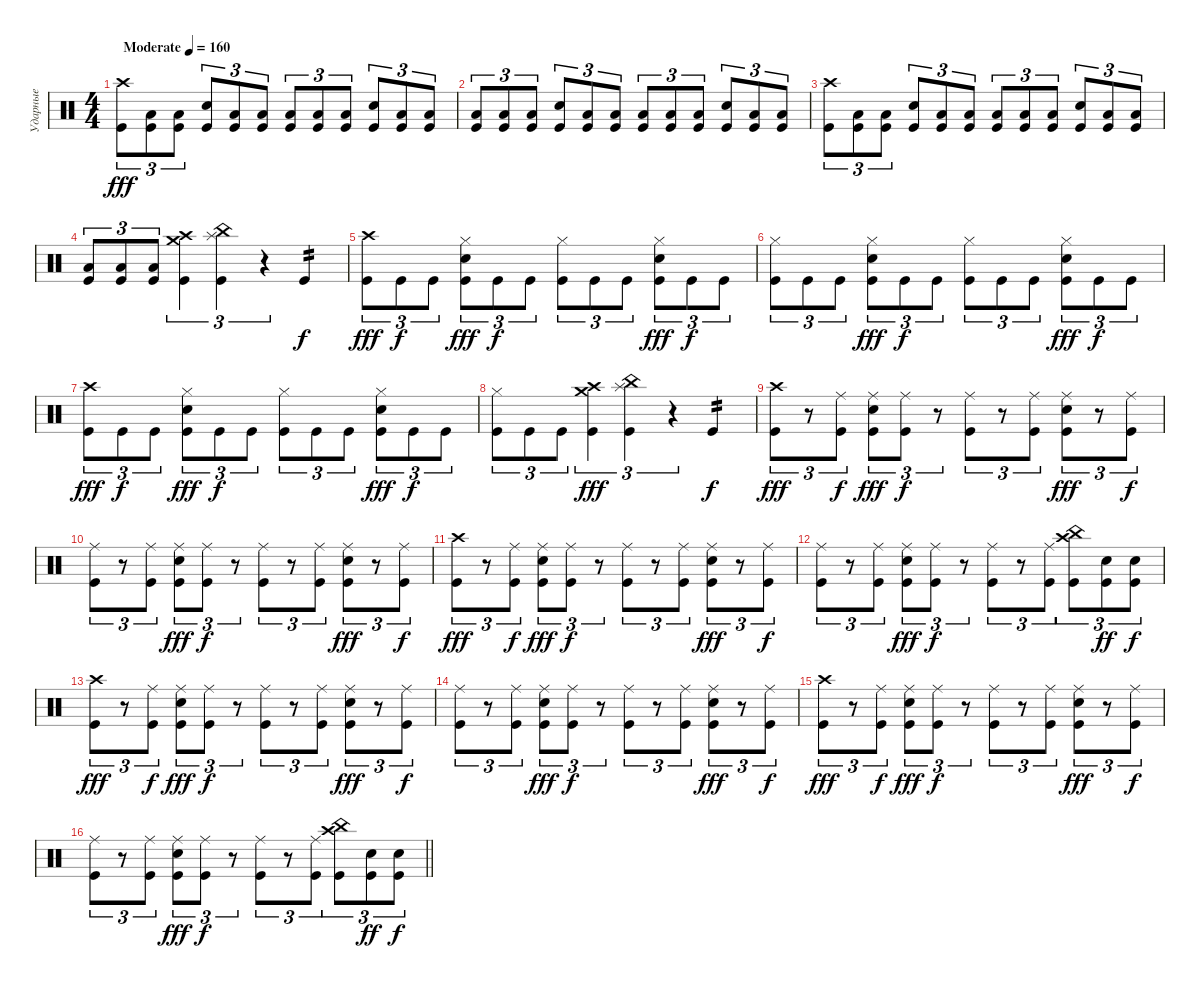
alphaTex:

\track ("Ударные" "Ударные") {instrument percussion}
\staff {score}
\articulation defaults
\ts (4 4)
\tempo (160 "Moderate")
\clef neutral
\ks c
("Kick (hit)" "Crash high (hit)").8{tu (3 2) dy fff} ("Kick (hit)" "Low Tom (hit)").8{tu (3 2)} ("Kick (hit)" "Low Tom (hit)").8{tu (3 2)} ("Kick (hit)" "Snare (hit) 2").8{tu (3 2)} ("Kick (hit)" "Low Tom (hit)").8{tu (3 2)} ("Kick (hit)" "Low Tom (hit)").8{tu (3 2)} ("Kick (hit)" "Low Tom (hit)").8{tu (3 2)} ("Kick (hit)" "Low Tom (hit)").8{tu (3 2)} ("Kick (hit)" "Low Tom (hit)").8{tu (3 2)} ("Kick (hit)" "Snare (hit) 2").8{tu (3 2)} ("Kick (hit)" "Low Tom (hit)").8{tu (3 2)} ("Kick (hit)" "Low Tom (hit)").8{tu (3 2)} |
("Kick (hit)" "Low Tom (hit)").8{tu (3 2)} ("Kick (hit)" "Low Tom (hit)").8{tu (3 2)} ("Kick (hit)" "Low Tom (hit)").8{tu (3 2)} ("Kick (hit)" "Snare (hit) 2").8{tu (3 2)} ("Kick (hit)" "Low Tom (hit)").8{tu (3 2)} ("Kick (hit)" "Low Tom (hit)").8{tu (3 2)} ("Kick (hit)" "Low Tom (hit)").8{tu (3 2)} ("Kick (hit)" "Low Tom (hit)").8{tu (3 2)} ("Kick (hit)" "Low Tom (hit)").8{tu (3 2)} ("Kick (hit)" "Snare (hit) 2").8{tu (3 2)} ("Kick (hit)" "Low Tom (hit)").8{tu (3 2)} ("Kick (hit)" "Low Tom (hit)").8{tu (3 2)} |
("Kick (hit)" "Crash high (hit)").8{tu (3 2)} ("Kick (hit)" "Low Tom (hit)").8{tu (3 2)} ("Kick (hit)" "Low Tom (hit)").8{tu (3 2)} ("Kick (hit)" "Snare (hit) 2").8{tu (3 2)} ("Kick (hit)" "Low Tom (hit)").8{tu (3 2)} ("Kick (hit)" "Low Tom (hit)").8{tu (3 2)} ("Kick (hit)" "Low Tom (hit)").8{tu (3 2)} ("Kick (hit)" "Low Tom (hit)").8{tu (3 2)} ("Kick (hit)" "Low Tom (hit)").8{tu (3 2)} ("Kick (hit)" "Snare (hit) 2").8{tu (3 2)} ("Kick (hit)" "Low Tom (hit)").8{tu (3 2)} ("Kick (hit)" "Low Tom (hit)").8{tu (3 2)} |
("Kick (hit)" "Low Tom (hit)").8{tu (3 2)} ("Kick (hit)" "Low Tom (hit)").8{tu (3 2)} ("Kick (hit)" "Low Tom (hit)").8{tu (3 2)} ("Kick (hit)" "Crash high (hit)" "Crash medium (hit)").4{tu (3 2)} ("Kick (hit)" "Splash (hit)" "China (hit)").4{tu (3 2)} r.4{tu (3 2)} "Kick (hit)".4{tp 2 dy f} |
("Kick (hit)" "Crash high (hit)").8{tu (3 2) dy fff} "Kick (hit)".8{tu (3 2) dy f} "Kick (hit)".8{tu (3 2)} ("Kick (hit)" "Snare (hit) 2" "Hi-Hat (closed)").8{tu (3 2) dy fff} "Kick (hit)".8{tu (3 2) dy f} "Kick (hit)".8{tu (3 2)} ("Kick (hit)" "Hi-Hat (closed)").8{tu (3 2)} "Kick (hit)".8{tu (3 2)} "Kick (hit)".8{tu (3 2)} ("Kick (hit)" "Snare (hit) 2" "Hi-Hat (closed)").8{tu (3 2) dy fff} "Kick (hit)".8{tu (3 2) dy f} "Kick (hit)".8{tu (3 2)} |
("Kick (hit)" "Hi-Hat (closed)").8{tu (3 2)} "Kick (hit)".8{tu (3 2)} "Kick (hit)".8{tu (3 2)} ("Kick (hit)" "Snare (hit) 2" "Hi-Hat (closed)").8{tu (3 2) dy fff} "Kick (hit)".8{tu (3 2) dy f} "Kick (hit)".8{tu (3 2)} ("Kick (hit)" "Hi-Hat (closed)").8{tu (3 2)} "Kick (hit)".8{tu (3 2)} "Kick (hit)".8{tu (3 2)} ("Kick (hit)" "Snare (hit) 2" "Hi-Hat (closed)").8{tu (3 2) dy fff} "Kick (hit)".8{tu (3 2) dy f} "Kick (hit)".8{tu (3 2)} |
("Kick (hit)" "Crash high (hit)").8{tu (3 2) dy fff} "Kick (hit)".8{tu (3 2) dy f} "Kick (hit)".8{tu (3 2)} ("Kick (hit)" "Snare (hit) 2" "Hi-Hat (closed)").8{tu (3 2) dy fff} "Kick (hit)".8{tu (3 2) dy f} "Kick (hit)".8{tu (3 2)} ("Kick (hit)" "Hi-Hat (closed)").8{tu (3 2)} "Kick (hit)".8{tu (3 2)} "Kick (hit)".8{tu (3 2)} ("Kick (hit)" "Snare (hit) 2" "Hi-Hat (closed)").8{tu (3 2) dy fff} "Kick (hit)".8{tu (3 2) dy f} "Kick (hit)".8{tu (3 2)} |
("Kick (hit)" "Hi-Hat (closed)").8{tu (3 2)} "Kick (hit)".8{tu (3 2)} "Kick (hit)".8{tu (3 2)} ("Kick (hit)" "Crash high (hit)" "Crash medium (hit)").4{tu (3 2) dy fff} ("Kick (hit)" "Splash (hit)" "China (hit)").4{tu (3 2)} r.4{tu (3 2)} "Kick (hit)".4{tp 2 dy f} |
("Kick (hit)" "Crash high (hit)").8{tu (3 2) dy fff} r.8{tu (3 2)} ("Kick (hit)" "Ride (middle)").8{tu (3 2) dy f} ("Kick (hit)" "Snare (hit) 2" "Ride (middle)").8{tu (3 2) dy fff} ("Kick (hit)" "Ride (middle)").8{tu (3 2) dy f} r.8{tu (3 2)} ("Kick (hit)" "Ride (middle)").8{tu (3 2)} r.8{tu (3 2)} ("Kick (hit)" "Ride (middle)").8{tu (3 2)} ("Kick (hit)" "Snare (hit) 2" "Ride (middle)").8{tu (3 2) dy fff} r.8{tu (3 2)} ("Kick (hit)" "Ride (middle)").8{tu (3 2) dy f} |
("Kick (hit)" "Ride (middle)").8{tu (3 2)} r.8{tu (3 2)} ("Kick (hit)" "Ride (middle)").8{tu (3 2)} ("Kick (hit)" "Snare (hit) 2" "Ride (middle)").8{tu (3 2) dy fff} ("Kick (hit)" "Ride (middle)").8{tu (3 2) dy f} r.8{tu (3 2)} ("Kick (hit)" "Ride (middle)").8{tu (3 2)} r.8{tu (3 2)} ("Kick (hit)" "Ride (middle)").8{tu (3 2)} ("Kick (hit)" "Snare (hit) 2" "Ride (middle)").8{tu (3 2) dy fff} r.8{tu (3 2)} ("Kick (hit)" "Ride (middle)").8{tu (3 2) dy f} |
("Kick (hit)" "Crash high (hit)").8{tu (3 2) dy fff} r.8{tu (3 2)} ("Kick (hit)" "Ride (middle)").8{tu (3 2) dy f} ("Kick (hit)" "Snare (hit) 2" "Ride (middle)").8{tu (3 2) dy fff} ("Kick (hit)" "Ride (middle)").8{tu (3 2) dy f} r.8{tu (3 2)} ("Kick (hit)" "Ride (middle)").8{tu (3 2)} r.8{tu (3 2)} ("Kick (hit)" "Ride (middle)").8{tu (3 2)} ("Kick (hit)" "Snare (hit) 2" "Ride (middle)").8{tu (3 2) dy fff} r.8{tu (3 2)} ("Kick (hit)" "Ride (middle)").8{tu (3 2) dy f} |
("Kick (hit)" "Ride (middle)").8{tu (3 2)} r.8{tu (3 2)} ("Kick (hit)" "Ride (middle)").8{tu (3 2)} ("Kick (hit)" "Snare (hit) 2" "Ride (middle)").8{tu (3 2) dy fff} ("Kick (hit)" "Ride (middle)").8{tu (3 2) dy f} r.8{tu (3 2)} ("Kick (hit)" "Ride (middle)").8{tu (3 2)} r.8{tu (3 2)} ("Kick (hit)" "Ride (middle)").8{tu (3 2)} ("Kick (hit)" "Crash high (hit)" "China (hit)").8{tu (3 2)} ("Kick (hit)" "Snare (hit) 2").8{tu (3 2) dy ff} ("Snare (hit) 2" "Kick (hit)").8{tu (3 2) dy f} |
("Kick (hit)" "Crash high (hit)").8{tu (3 2) dy fff} r.8{tu (3 2)} ("Kick (hit)" "Ride (middle)").8{tu (3 2) dy f} ("Kick (hit)" "Snare (hit) 2" "Ride (middle)").8{tu (3 2) dy fff} ("Kick (hit)" "Ride (middle)").8{tu (3 2) dy f} r.8{tu (3 2)} ("Kick (hit)" "Ride (middle)").8{tu (3 2)} r.8{tu (3 2)} ("Kick (hit)" "Ride (middle)").8{tu (3 2)} ("Kick (hit)" "Snare (hit) 2" "Ride (middle)").8{tu (3 2) dy fff} r.8{tu (3 2)} ("Kick (hit)" "Ride (middle)").8{tu (3 2) dy f} |
("Kick (hit)" "Ride (middle)").8{tu (3 2)} r.8{tu (3 2)} ("Kick (hit)" "Ride (middle)").8{tu (3 2)} ("Kick (hit)" "Snare (hit) 2" "Ride (middle)").8{tu (3 2) dy fff} ("Kick (hit)" "Ride (middle)").8{tu (3 2) dy f} r.8{tu (3 2)} ("Kick (hit)" "Ride (middle)").8{tu (3 2)} r.8{tu (3 2)} ("Kick (hit)" "Ride (middle)").8{tu (3 2)} ("Kick (hit)" "Snare (hit) 2" "Ride (middle)").8{tu (3 2) dy fff} r.8{tu (3 2)} ("Kick (hit)" "Ride (middle)").8{tu (3 2) dy f} |
("Kick (hit)" "Crash high (hit)").8{tu (3 2) dy fff} r.8{tu (3 2)} ("Kick (hit)" "Ride (middle)").8{tu (3 2) dy f} ("Kick (hit)" "Snare (hit) 2" "Ride (middle)").8{tu (3 2) dy fff} ("Kick (hit)" "Ride (middle)").8{tu (3 2) dy f} r.8{tu (3 2)} ("Kick (hit)" "Ride (middle)").8{tu (3 2)} r.8{tu (3 2)} ("Kick (hit)" "Ride (middle)").8{tu (3 2)} ("Kick (hit)" "Snare (hit) 2" "Ride (middle)").8{tu (3 2) dy fff} r.8{tu (3 2)} ("Kick (hit)" "Ride (middle)").8{tu (3 2) dy f} |
\barLineRight lightlight
("Kick (hit)" "Ride (middle)").8{tu (3 2)} r.8{tu (3 2)} ("Kick (hit)" "Ride (middle)").8{tu (3 2)} ("Kick (hit)" "Snare (hit) 2" "Ride (middle)").8{tu (3 2) dy fff} ("Kick (hit)" "Ride (middle)").8{tu (3 2) dy f} r.8{tu (3 2)} ("Kick (hit)" "Ride (middle)").8{tu (3 2)} r.8{tu (3 2)} ("Kick (hit)" "Ride (middle)").8{tu (3 2)} ("Kick (hit)" "Crash high (hit)" "China (hit)").8{tu (3 2)} ("Kick (hit)" "Snare (hit) 2").8{tu (3 2) dy ff} ("Snare (hit) 2" "Kick (hit)").8{tu (3 2) dy f}
